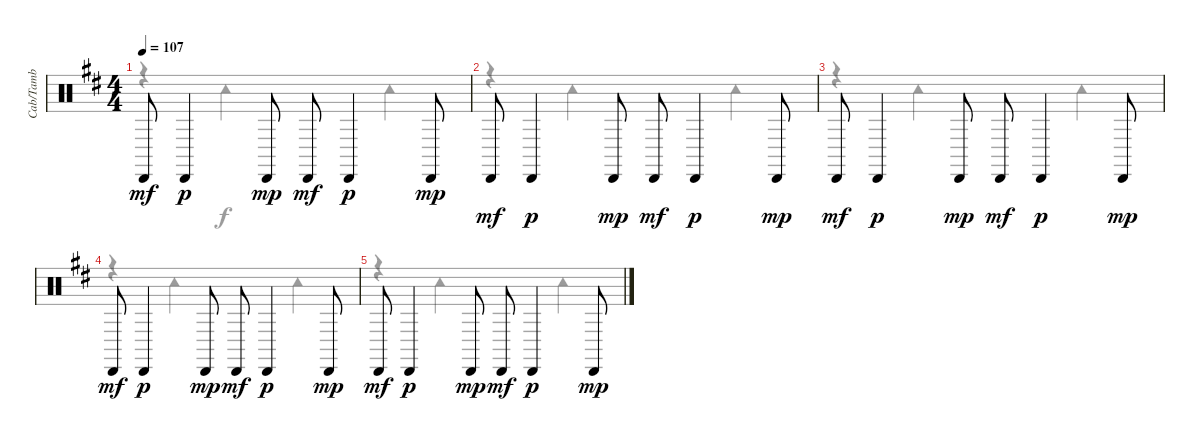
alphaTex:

\track ("Cab/Tamb" "Cab/Tamb") {instrument percussion}
\staff {score}
\articulation defaults
\voice
\ts (4 4)
\tempo 107
\clef neutral
\ks d "Cabasa (hit)".8{dy mf} "Cabasa (hit)".4{dy p} "Cabasa (hit)".8{dy mp} "Cabasa (hit)".8{dy mf} "Cabasa (hit)".4{dy p} "Cabasa (hit)".8{dy mp}
|
"Cabasa (hit)".8{dy mf} "Cabasa (hit)".4{dy p} "Cabasa (hit)".8{dy mp} "Cabasa (hit)".8{dy mf} "Cabasa (hit)".4{dy p} "Cabasa (hit)".8{dy mp} |
"Cabasa (hit)".8{dy mf} "Cabasa (hit)".4{dy p} "Cabasa (hit)".8{dy mp} "Cabasa (hit)".8{dy mf} "Cabasa (hit)".4{dy p} "Cabasa (hit)".8{dy mp} |
"Cabasa (hit)".8{dy mf} "Cabasa (hit)".4{dy p} "Cabasa (hit)".8{dy mp} "Cabasa (hit)".8{dy mf} "Cabasa (hit)".4{dy p} "Cabasa (hit)".8{dy mp} |
"Cabasa (hit)".8{dy mf} "Cabasa (hit)".4{dy p} "Cabasa (hit)".8{dy mp} "Cabasa (hit)".8{dy mf} "Cabasa (hit)".4{dy p} "Cabasa (hit)".8{dy mp} |
|
|
\voice
\clef neutral
\ottava regular
\simile none
\ks d
r.4{dy f} "Tambourine (hit)".2 "Tambourine (hit)".4 |
r.4 "Tambourine (hit)".2 "Tambourine (hit)".4 |
r.4 "Tambourine (hit)".2 "Tambourine (hit)".4 |
r.4 "Tambourine (hit)".2 "Tambourine (hit)".4 |
r.4 "Tambourine (hit)".2 "Tambourine (hit)".4 |
|
|
